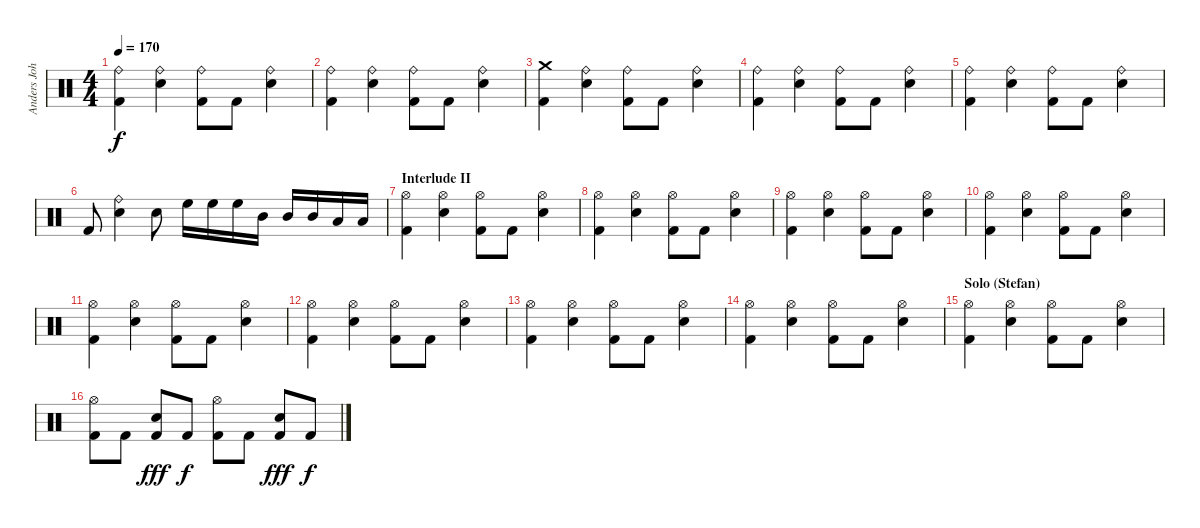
\track ("Anders Johansson" "Anders Joh") {instrument percussion}
\staff {score}
\articulation defaults
\ts (4 4)
\tempo 170
\clef neutral
\ks c
("Ride (bell)" "Kick (hit) 2").4{dy f} ("Ride (bell)" "Snare (hit) 2").4 ("Ride (bell)" "Kick (hit) 2").8 "Kick (hit) 2".8 ("Ride (bell)" "Snare (hit) 2").4 |
("Ride (bell)" "Kick (hit) 2").4 ("Ride (bell)" "Snare (hit) 2").4 ("Ride (bell)" "Kick (hit) 2").8 "Kick (hit) 2".8 ("Ride (bell)" "Snare (hit) 2").4 |
("Crash medium (hit)" "Kick (hit) 2").4 ("Ride (bell)" "Snare (hit) 2").4 ("Ride (bell)" "Kick (hit) 2").8 "Kick (hit) 2".8 ("Ride (bell)" "Snare (hit) 2").4 |
("Ride (bell)" "Kick (hit) 2").4 ("Ride (bell)" "Snare (hit) 2").4 ("Ride (bell)" "Kick (hit) 2").8 "Kick (hit) 2".8 ("Ride (bell)" "Snare (hit) 2").4 |
("Ride (bell)" "Kick (hit) 2").4 ("Ride (bell)" "Snare (hit) 2").4 ("Ride (bell)" "Kick (hit) 2").8 "Kick (hit) 2".8 ("Ride (bell)" "Snare (hit) 2").4 |
"Kick (hit) 2".8 ("Ride (bell)" "Snare (hit) 2").4 "Snare (hit) 2".8 "High Floor Tom (hit)".16 "High Floor Tom (hit)".16 "High Floor Tom (hit)".16 "Mid Tom (hit)".16 "Mid Tom (hit)".16 "Mid Tom (hit)".16 "Low Tom (hit)".16 "Low Tom (hit)".16 |
\section ("" "Interlude II")
("Hi-Hat (open)" "Kick (hit) 2").4 ("Hi-Hat (open)" "Snare (hit) 2").4 ("Hi-Hat (open)" "Kick (hit) 2").8 "Kick (hit) 2".8 ("Hi-Hat (open)" "Snare (hit) 2").4 |
("Hi-Hat (open)" "Kick (hit) 2").4 ("Hi-Hat (open)" "Snare (hit) 2").4 ("Hi-Hat (open)" "Kick (hit) 2").8 "Kick (hit) 2".8 ("Hi-Hat (open)" "Snare (hit) 2").4 |
("Hi-Hat (open)" "Kick (hit) 2").4 ("Hi-Hat (open)" "Snare (hit) 2").4 ("Hi-Hat (open)" "Kick (hit) 2").8 "Kick (hit) 2".8 ("Hi-Hat (open)" "Snare (hit) 2").4 |
("Hi-Hat (open)" "Kick (hit) 2").4 ("Hi-Hat (open)" "Snare (hit) 2").4 ("Hi-Hat (open)" "Kick (hit) 2").8 "Kick (hit) 2".8 ("Hi-Hat (open)" "Snare (hit) 2").4 |
("Hi-Hat (open)" "Kick (hit) 2").4 ("Hi-Hat (open)" "Snare (hit) 2").4 ("Hi-Hat (open)" "Kick (hit) 2").8 "Kick (hit) 2".8 ("Hi-Hat (open)" "Snare (hit) 2").4 |
("Hi-Hat (open)" "Kick (hit) 2").4 ("Hi-Hat (open)" "Snare (hit) 2").4 ("Hi-Hat (open)" "Kick (hit) 2").8 "Kick (hit) 2".8 ("Hi-Hat (open)" "Snare (hit) 2").4 |
("Hi-Hat (open)" "Kick (hit) 2").4 ("Hi-Hat (open)" "Snare (hit) 2").4 ("Hi-Hat (open)" "Kick (hit) 2").8 "Kick (hit) 2".8 ("Hi-Hat (open)" "Snare (hit) 2").4 |
("Hi-Hat (open)" "Kick (hit) 2").4 ("Hi-Hat (open)" "Snare (hit) 2").4 ("Hi-Hat (open)" "Kick (hit) 2").8 "Kick (hit) 2".8 ("Hi-Hat (open)" "Snare (hit) 2").4 |
\section ("" "Solo (Stefan)")
("Hi-Hat (open)" "Kick (hit) 2").4 ("Hi-Hat (open)" "Snare (hit) 2").4 ("Hi-Hat (open)" "Kick (hit) 2").8 "Kick (hit) 2".8 ("Hi-Hat (open)" "Snare (hit) 2").4 |
("Hi-Hat (open)" "Kick (hit) 2").8 "Kick (hit) 2".8 ("Snare (hit) 2" "Kick (hit) 2").8{dy fff} "Kick (hit) 2".8{dy f} ("Hi-Hat (open)" "Kick (hit) 2").8 "Kick (hit) 2".8 ("Snare (hit) 2" "Kick (hit) 2").8{dy fff} "Kick (hit) 2".8{dy f}
